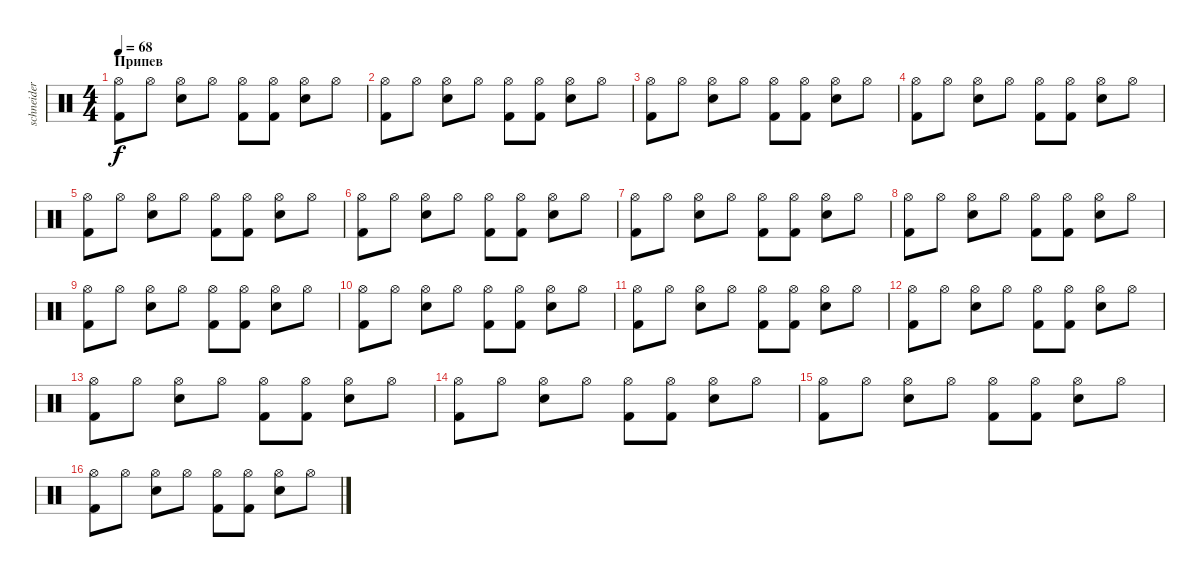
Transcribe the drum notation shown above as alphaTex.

\track ("schneider" "schneider") {instrument percussion}
\staff {score}
\articulation defaults
\ts (4 4)
\section ("" "Припев")
\tempo 68
\clef neutral
\ks c
("Hi-Hat (open)" "Kick (hit) 2").8{dy f} "Hi-Hat (open)".8 ("Hi-Hat (open)" "Electric Snare (hit)").8 "Hi-Hat (open)".8 ("Hi-Hat (open)" "Kick (hit) 2").8 ("Hi-Hat (open)" "Kick (hit) 2").8 ("Hi-Hat (open)" "Electric Snare (hit)").8 "Hi-Hat (open)".8 |
("Hi-Hat (open)" "Kick (hit) 2").8 "Hi-Hat (open)".8 ("Hi-Hat (open)" "Electric Snare (hit)").8 "Hi-Hat (open)".8 ("Hi-Hat (open)" "Kick (hit) 2").8 ("Hi-Hat (open)" "Kick (hit) 2").8 ("Hi-Hat (open)" "Electric Snare (hit)").8 "Hi-Hat (open)".8 |
("Hi-Hat (open)" "Kick (hit) 2").8 "Hi-Hat (open)".8 ("Hi-Hat (open)" "Electric Snare (hit)").8 "Hi-Hat (open)".8 ("Hi-Hat (open)" "Kick (hit) 2").8 ("Hi-Hat (open)" "Kick (hit) 2").8 ("Hi-Hat (open)" "Electric Snare (hit)").8 "Hi-Hat (open)".8 |
("Hi-Hat (open)" "Kick (hit) 2").8 "Hi-Hat (open)".8 ("Hi-Hat (open)" "Electric Snare (hit)").8 "Hi-Hat (open)".8 ("Hi-Hat (open)" "Kick (hit) 2").8 ("Hi-Hat (open)" "Kick (hit) 2").8 ("Hi-Hat (open)" "Electric Snare (hit)").8 "Hi-Hat (open)".8 |
("Hi-Hat (open)" "Kick (hit) 2").8 "Hi-Hat (open)".8 ("Hi-Hat (open)" "Electric Snare (hit)").8 "Hi-Hat (open)".8 ("Hi-Hat (open)" "Kick (hit) 2").8 ("Hi-Hat (open)" "Kick (hit) 2").8 ("Hi-Hat (open)" "Electric Snare (hit)").8 "Hi-Hat (open)".8 |
("Hi-Hat (open)" "Kick (hit) 2").8 "Hi-Hat (open)".8 ("Hi-Hat (open)" "Electric Snare (hit)").8 "Hi-Hat (open)".8 ("Hi-Hat (open)" "Kick (hit) 2").8 ("Hi-Hat (open)" "Kick (hit) 2").8 ("Hi-Hat (open)" "Electric Snare (hit)").8 "Hi-Hat (open)".8 |
("Hi-Hat (open)" "Kick (hit) 2").8 "Hi-Hat (open)".8 ("Hi-Hat (open)" "Electric Snare (hit)").8 "Hi-Hat (open)".8 ("Hi-Hat (open)" "Kick (hit) 2").8 ("Hi-Hat (open)" "Kick (hit) 2").8 ("Hi-Hat (open)" "Electric Snare (hit)").8 "Hi-Hat (open)".8 |
("Hi-Hat (open)" "Kick (hit) 2").8 "Hi-Hat (open)".8 ("Hi-Hat (open)" "Electric Snare (hit)").8 "Hi-Hat (open)".8 ("Hi-Hat (open)" "Kick (hit) 2").8 ("Hi-Hat (open)" "Kick (hit) 2").8 ("Hi-Hat (open)" "Electric Snare (hit)").8 "Hi-Hat (open)".8 |
("Hi-Hat (open)" "Kick (hit) 2").8 "Hi-Hat (open)".8 ("Hi-Hat (open)" "Electric Snare (hit)").8 "Hi-Hat (open)".8 ("Hi-Hat (open)" "Kick (hit) 2").8 ("Hi-Hat (open)" "Kick (hit) 2").8 ("Hi-Hat (open)" "Electric Snare (hit)").8 "Hi-Hat (open)".8 |
("Hi-Hat (open)" "Kick (hit) 2").8 "Hi-Hat (open)".8 ("Hi-Hat (open)" "Electric Snare (hit)").8 "Hi-Hat (open)".8 ("Hi-Hat (open)" "Kick (hit) 2").8 ("Hi-Hat (open)" "Kick (hit) 2").8 ("Hi-Hat (open)" "Electric Snare (hit)").8 "Hi-Hat (open)".8 |
("Hi-Hat (open)" "Kick (hit) 2").8 "Hi-Hat (open)".8 ("Hi-Hat (open)" "Electric Snare (hit)").8 "Hi-Hat (open)".8 ("Hi-Hat (open)" "Kick (hit) 2").8 ("Hi-Hat (open)" "Kick (hit) 2").8 ("Hi-Hat (open)" "Electric Snare (hit)").8 "Hi-Hat (open)".8 |
("Hi-Hat (open)" "Kick (hit) 2").8 "Hi-Hat (open)".8 ("Hi-Hat (open)" "Electric Snare (hit)").8 "Hi-Hat (open)".8 ("Hi-Hat (open)" "Kick (hit) 2").8 ("Hi-Hat (open)" "Kick (hit) 2").8 ("Hi-Hat (open)" "Electric Snare (hit)").8 "Hi-Hat (open)".8 |
("Hi-Hat (open)" "Kick (hit) 2").8 "Hi-Hat (open)".8 ("Hi-Hat (open)" "Electric Snare (hit)").8 "Hi-Hat (open)".8 ("Hi-Hat (open)" "Kick (hit) 2").8 ("Hi-Hat (open)" "Kick (hit) 2").8 ("Hi-Hat (open)" "Electric Snare (hit)").8 "Hi-Hat (open)".8 |
("Hi-Hat (open)" "Kick (hit) 2").8 "Hi-Hat (open)".8 ("Hi-Hat (open)" "Electric Snare (hit)").8 "Hi-Hat (open)".8 ("Hi-Hat (open)" "Kick (hit) 2").8 ("Hi-Hat (open)" "Kick (hit) 2").8 ("Hi-Hat (open)" "Electric Snare (hit)").8 "Hi-Hat (open)".8 |
("Hi-Hat (open)" "Kick (hit) 2").8 "Hi-Hat (open)".8 ("Hi-Hat (open)" "Electric Snare (hit)").8 "Hi-Hat (open)".8 ("Hi-Hat (open)" "Kick (hit) 2").8 ("Hi-Hat (open)" "Kick (hit) 2").8 ("Hi-Hat (open)" "Electric Snare (hit)").8 "Hi-Hat (open)".8 |
("Hi-Hat (open)" "Kick (hit) 2").8 "Hi-Hat (open)".8 ("Hi-Hat (open)" "Electric Snare (hit)").8 "Hi-Hat (open)".8 ("Hi-Hat (open)" "Kick (hit) 2").8 ("Hi-Hat (open)" "Kick (hit) 2").8 ("Hi-Hat (open)" "Electric Snare (hit)").8 "Hi-Hat (open)".8
